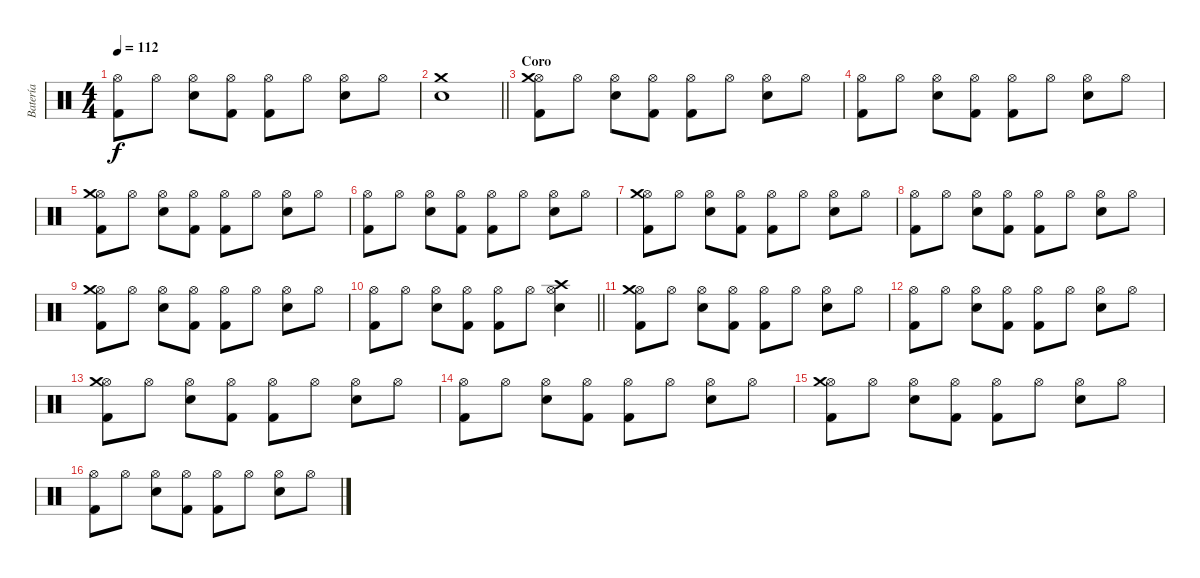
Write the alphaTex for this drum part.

\track ("Batería" "Batería") {instrument percussion}
\staff {score}
\articulation defaults
\ts (4 4)
\tempo 112
\clef neutral
\ks c
("Hi-Hat (open)" "Kick (hit) 2").8{dy f} "Hi-Hat (open)".8 ("Hi-Hat (open)" "Electric Snare (hit)").8 ("Hi-Hat (open)" "Kick (hit) 2").8 ("Hi-Hat (open)" "Kick (hit) 2").8 "Hi-Hat (open)".8 ("Hi-Hat (open)" "Electric Snare (hit)").8 "Hi-Hat (open)".8 |
\barLineRight lightlight
("Crash medium (hit)" "Electric Snare (hit)").1 |
\section ("" "Coro")
("Hi-Hat (open)" "Kick (hit) 2" "Crash medium (hit)").8 "Hi-Hat (open)".8 ("Hi-Hat (open)" "Electric Snare (hit)").8 ("Hi-Hat (open)" "Kick (hit) 2").8 ("Hi-Hat (open)" "Kick (hit) 2").8 "Hi-Hat (open)".8 ("Hi-Hat (open)" "Electric Snare (hit)").8 "Hi-Hat (open)".8 |
("Hi-Hat (open)" "Kick (hit) 2").8 "Hi-Hat (open)".8 ("Hi-Hat (open)" "Electric Snare (hit)").8 ("Hi-Hat (open)" "Kick (hit) 2").8 ("Hi-Hat (open)" "Kick (hit) 2").8 "Hi-Hat (open)".8 ("Hi-Hat (open)" "Electric Snare (hit)").8 "Hi-Hat (open)".8 |
("Hi-Hat (open)" "Kick (hit) 2" "Crash medium (hit)").8 "Hi-Hat (open)".8 ("Hi-Hat (open)" "Electric Snare (hit)").8 ("Hi-Hat (open)" "Kick (hit) 2").8 ("Hi-Hat (open)" "Kick (hit) 2").8 "Hi-Hat (open)".8 ("Hi-Hat (open)" "Electric Snare (hit)").8 "Hi-Hat (open)".8 |
("Hi-Hat (open)" "Kick (hit) 2").8 "Hi-Hat (open)".8 ("Hi-Hat (open)" "Electric Snare (hit)").8 ("Hi-Hat (open)" "Kick (hit) 2").8 ("Hi-Hat (open)" "Kick (hit) 2").8 "Hi-Hat (open)".8 ("Hi-Hat (open)" "Electric Snare (hit)").8 "Hi-Hat (open)".8 |
("Hi-Hat (open)" "Kick (hit) 2" "Crash medium (hit)").8 "Hi-Hat (open)".8 ("Hi-Hat (open)" "Electric Snare (hit)").8 ("Hi-Hat (open)" "Kick (hit) 2").8 ("Hi-Hat (open)" "Kick (hit) 2").8 "Hi-Hat (open)".8 ("Hi-Hat (open)" "Electric Snare (hit)").8 "Hi-Hat (open)".8 |
("Hi-Hat (open)" "Kick (hit) 2").8 "Hi-Hat (open)".8 ("Hi-Hat (open)" "Electric Snare (hit)").8 ("Hi-Hat (open)" "Kick (hit) 2").8 ("Hi-Hat (open)" "Kick (hit) 2").8 "Hi-Hat (open)".8 ("Hi-Hat (open)" "Electric Snare (hit)").8 "Hi-Hat (open)".8 |
("Hi-Hat (open)" "Kick (hit) 2" "Crash medium (hit)").8 "Hi-Hat (open)".8 ("Hi-Hat (open)" "Electric Snare (hit)").8 ("Hi-Hat (open)" "Kick (hit) 2").8 ("Hi-Hat (open)" "Kick (hit) 2").8 "Hi-Hat (open)".8 ("Hi-Hat (open)" "Electric Snare (hit)").8 "Hi-Hat (open)".8 |
\barLineRight lightlight
("Hi-Hat (open)" "Kick (hit) 2").8 "Hi-Hat (open)".8 ("Hi-Hat (open)" "Electric Snare (hit)").8 ("Hi-Hat (open)" "Kick (hit) 2").8 ("Hi-Hat (open)" "Kick (hit) 2").8 "Hi-Hat (open)".8 ("Hi-Hat (open)" "Electric Snare (hit)" "Crash high (hit)").4 |
\section ("" "")
("Hi-Hat (open)" "Kick (hit) 2" "Crash medium (hit)").8 "Hi-Hat (open)".8 ("Hi-Hat (open)" "Electric Snare (hit)").8 ("Hi-Hat (open)" "Kick (hit) 2").8 ("Hi-Hat (open)" "Kick (hit) 2").8 "Hi-Hat (open)".8 ("Hi-Hat (open)" "Electric Snare (hit)").8 "Hi-Hat (open)".8 |
("Hi-Hat (open)" "Kick (hit) 2").8 "Hi-Hat (open)".8 ("Hi-Hat (open)" "Electric Snare (hit)").8 ("Hi-Hat (open)" "Kick (hit) 2").8 ("Hi-Hat (open)" "Kick (hit) 2").8 "Hi-Hat (open)".8 ("Hi-Hat (open)" "Electric Snare (hit)").8 "Hi-Hat (open)".8 |
("Hi-Hat (open)" "Kick (hit) 2" "Crash medium (hit)").8 "Hi-Hat (open)".8 ("Hi-Hat (open)" "Electric Snare (hit)").8 ("Hi-Hat (open)" "Kick (hit) 2").8 ("Hi-Hat (open)" "Kick (hit) 2").8 "Hi-Hat (open)".8 ("Hi-Hat (open)" "Electric Snare (hit)").8 "Hi-Hat (open)".8 |
("Hi-Hat (open)" "Kick (hit) 2").8 "Hi-Hat (open)".8 ("Hi-Hat (open)" "Electric Snare (hit)").8 ("Hi-Hat (open)" "Kick (hit) 2").8 ("Hi-Hat (open)" "Kick (hit) 2").8 "Hi-Hat (open)".8 ("Hi-Hat (open)" "Electric Snare (hit)").8 "Hi-Hat (open)".8 |
("Hi-Hat (open)" "Kick (hit) 2" "Crash medium (hit)").8 "Hi-Hat (open)".8 ("Hi-Hat (open)" "Electric Snare (hit)").8 ("Hi-Hat (open)" "Kick (hit) 2").8 ("Hi-Hat (open)" "Kick (hit) 2").8 "Hi-Hat (open)".8 ("Hi-Hat (open)" "Electric Snare (hit)").8 "Hi-Hat (open)".8 |
("Hi-Hat (open)" "Kick (hit) 2").8 "Hi-Hat (open)".8 ("Hi-Hat (open)" "Electric Snare (hit)").8 ("Hi-Hat (open)" "Kick (hit) 2").8 ("Hi-Hat (open)" "Kick (hit) 2").8 "Hi-Hat (open)".8 ("Hi-Hat (open)" "Electric Snare (hit)").8 "Hi-Hat (open)".8
